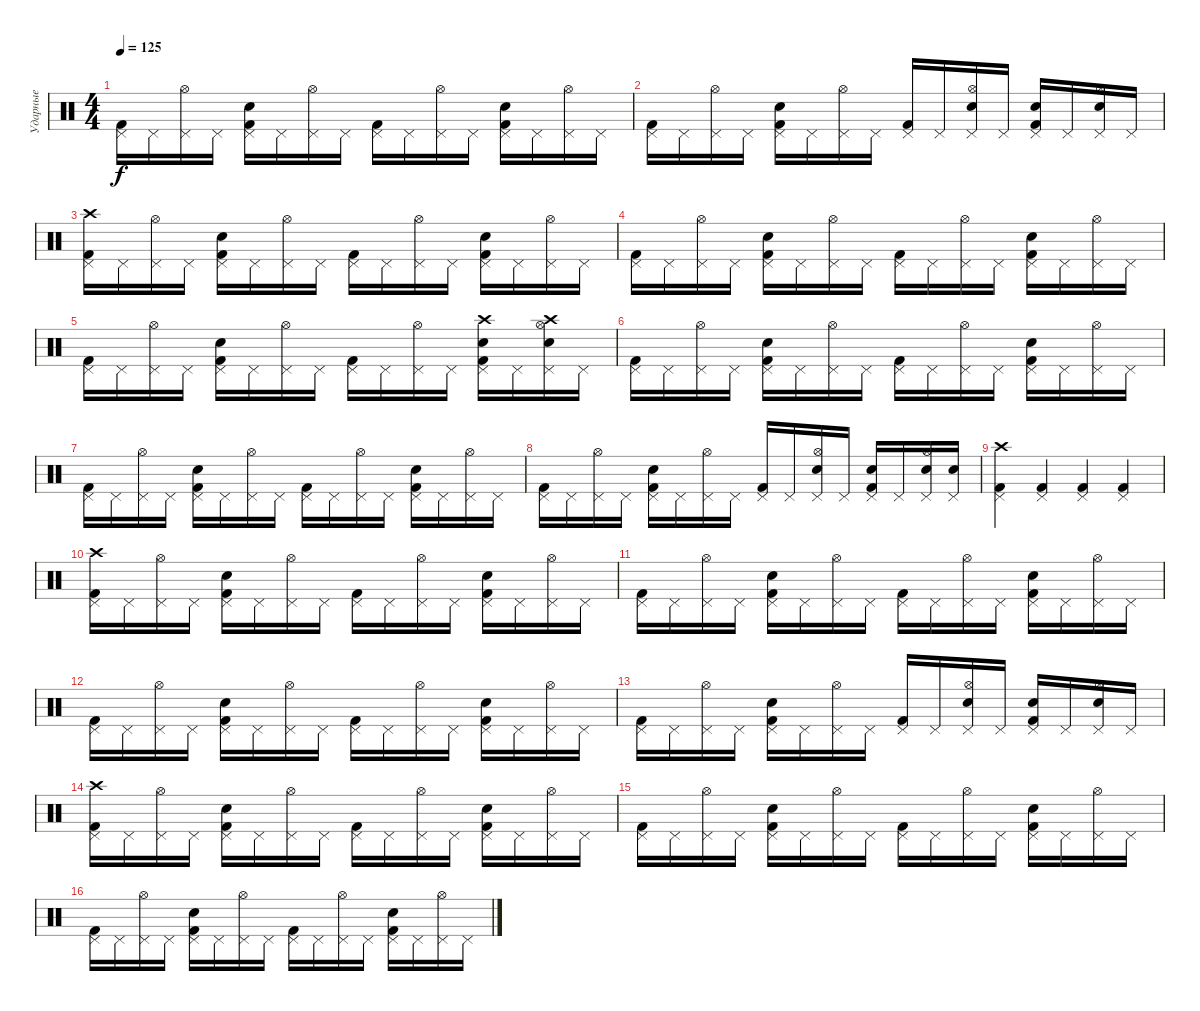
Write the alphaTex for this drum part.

\track ("Ударные" "Ударные") {instrument percussion}
\staff {score}
\articulation defaults
\ts (4 4)
\tempo 125
\clef neutral
\ks c
("Kick (hit) 2" "Pedal Hi-Hat (hit)").16{dy f} "Pedal Hi-Hat (hit)".16 ("Pedal Hi-Hat (hit)" "Hi-Hat (open)").16 "Pedal Hi-Hat (hit)".16 ("Kick (hit) 2" "Pedal Hi-Hat (hit)" "Snare (hit) 2").16 "Pedal Hi-Hat (hit)".16 ("Pedal Hi-Hat (hit)" "Hi-Hat (open)").16 "Pedal Hi-Hat (hit)".16 ("Kick (hit) 2" "Pedal Hi-Hat (hit)").16 "Pedal Hi-Hat (hit)".16 ("Pedal Hi-Hat (hit)" "Hi-Hat (open)").16 "Pedal Hi-Hat (hit)".16 ("Kick (hit) 2" "Pedal Hi-Hat (hit)" "Snare (hit) 2").16 "Pedal Hi-Hat (hit)".16 ("Pedal Hi-Hat (hit)" "Hi-Hat (open)").16 "Pedal Hi-Hat (hit)".16 |
("Kick (hit) 2" "Pedal Hi-Hat (hit)").16 "Pedal Hi-Hat (hit)".16 ("Pedal Hi-Hat (hit)" "Hi-Hat (open)").16 "Pedal Hi-Hat (hit)".16 ("Kick (hit) 2" "Pedal Hi-Hat (hit)" "Snare (hit) 2").16 "Pedal Hi-Hat (hit)".16 ("Pedal Hi-Hat (hit)" "Hi-Hat (open)").16 "Pedal Hi-Hat (hit)".16 ("Kick (hit) 2" "Pedal Hi-Hat (hit)").16 "Pedal Hi-Hat (hit)".16 ("Pedal Hi-Hat (hit)" "Snare (hit) 2" "Hi-Hat (open)").16 "Pedal Hi-Hat (hit)".16 ("Kick (hit) 2" "Pedal Hi-Hat (hit)" "Snare (hit) 2").16 "Pedal Hi-Hat (hit)".16 ("Pedal Hi-Hat (hit)" "Snare (hit) 2" "Hi-Hat (open)").16 "Pedal Hi-Hat (hit)".16 |
("Kick (hit) 2" "Pedal Hi-Hat (hit)" "Crash high (hit)").16 "Pedal Hi-Hat (hit)".16 ("Pedal Hi-Hat (hit)" "Hi-Hat (open)").16 "Pedal Hi-Hat (hit)".16 ("Kick (hit) 2" "Pedal Hi-Hat (hit)" "Snare (hit) 2").16 "Pedal Hi-Hat (hit)".16 ("Pedal Hi-Hat (hit)" "Hi-Hat (open)").16 "Pedal Hi-Hat (hit)".16 ("Kick (hit) 2" "Pedal Hi-Hat (hit)").16 "Pedal Hi-Hat (hit)".16 ("Pedal Hi-Hat (hit)" "Hi-Hat (open)").16 "Pedal Hi-Hat (hit)".16 ("Kick (hit) 2" "Pedal Hi-Hat (hit)" "Snare (hit) 2").16 "Pedal Hi-Hat (hit)".16 ("Pedal Hi-Hat (hit)" "Hi-Hat (open)").16 "Pedal Hi-Hat (hit)".16 |
("Kick (hit) 2" "Pedal Hi-Hat (hit)").16 "Pedal Hi-Hat (hit)".16 ("Pedal Hi-Hat (hit)" "Hi-Hat (open)").16 "Pedal Hi-Hat (hit)".16 ("Kick (hit) 2" "Pedal Hi-Hat (hit)" "Snare (hit) 2").16 "Pedal Hi-Hat (hit)".16 ("Pedal Hi-Hat (hit)" "Hi-Hat (open)").16 "Pedal Hi-Hat (hit)".16 ("Kick (hit) 2" "Pedal Hi-Hat (hit)").16 "Pedal Hi-Hat (hit)".16 ("Pedal Hi-Hat (hit)" "Hi-Hat (open)").16 "Pedal Hi-Hat (hit)".16 ("Kick (hit) 2" "Pedal Hi-Hat (hit)" "Snare (hit) 2").16 "Pedal Hi-Hat (hit)".16 ("Pedal Hi-Hat (hit)" "Hi-Hat (open)").16 "Pedal Hi-Hat (hit)".16 |
("Kick (hit) 2" "Pedal Hi-Hat (hit)").16 "Pedal Hi-Hat (hit)".16 ("Pedal Hi-Hat (hit)" "Hi-Hat (open)").16 "Pedal Hi-Hat (hit)".16 ("Kick (hit) 2" "Pedal Hi-Hat (hit)" "Snare (hit) 2").16 "Pedal Hi-Hat (hit)".16 ("Pedal Hi-Hat (hit)" "Hi-Hat (open)").16 "Pedal Hi-Hat (hit)".16 ("Kick (hit) 2" "Pedal Hi-Hat (hit)").16 "Pedal Hi-Hat (hit)".16 ("Pedal Hi-Hat (hit)" "Hi-Hat (open)").16 "Pedal Hi-Hat (hit)".16 ("Kick (hit) 2" "Pedal Hi-Hat (hit)" "Snare (hit) 2" "Crash high (hit)").16 "Pedal Hi-Hat (hit)".16 ("Pedal Hi-Hat (hit)" "Snare (hit) 2" "Hi-Hat (open)" "Crash high (hit)").16 "Pedal Hi-Hat (hit)".16 |
("Kick (hit) 2" "Pedal Hi-Hat (hit)").16 "Pedal Hi-Hat (hit)".16 ("Pedal Hi-Hat (hit)" "Hi-Hat (open)").16 "Pedal Hi-Hat (hit)".16 ("Kick (hit) 2" "Pedal Hi-Hat (hit)" "Snare (hit) 2").16 "Pedal Hi-Hat (hit)".16 ("Pedal Hi-Hat (hit)" "Hi-Hat (open)").16 "Pedal Hi-Hat (hit)".16 ("Kick (hit) 2" "Pedal Hi-Hat (hit)").16 "Pedal Hi-Hat (hit)".16 ("Pedal Hi-Hat (hit)" "Hi-Hat (open)").16 "Pedal Hi-Hat (hit)".16 ("Kick (hit) 2" "Pedal Hi-Hat (hit)" "Snare (hit) 2").16 "Pedal Hi-Hat (hit)".16 ("Pedal Hi-Hat (hit)" "Hi-Hat (open)").16 "Pedal Hi-Hat (hit)".16 |
("Kick (hit) 2" "Pedal Hi-Hat (hit)").16 "Pedal Hi-Hat (hit)".16 ("Pedal Hi-Hat (hit)" "Hi-Hat (open)").16 "Pedal Hi-Hat (hit)".16 ("Kick (hit) 2" "Pedal Hi-Hat (hit)" "Snare (hit) 2").16 "Pedal Hi-Hat (hit)".16 ("Pedal Hi-Hat (hit)" "Hi-Hat (open)").16 "Pedal Hi-Hat (hit)".16 ("Kick (hit) 2" "Pedal Hi-Hat (hit)").16 "Pedal Hi-Hat (hit)".16 ("Pedal Hi-Hat (hit)" "Hi-Hat (open)").16 "Pedal Hi-Hat (hit)".16 ("Kick (hit) 2" "Pedal Hi-Hat (hit)" "Snare (hit) 2").16 "Pedal Hi-Hat (hit)".16 ("Pedal Hi-Hat (hit)" "Hi-Hat (open)").16 "Pedal Hi-Hat (hit)".16 |
("Kick (hit) 2" "Pedal Hi-Hat (hit)").16 "Pedal Hi-Hat (hit)".16 ("Pedal Hi-Hat (hit)" "Hi-Hat (open)").16 "Pedal Hi-Hat (hit)".16 ("Kick (hit) 2" "Pedal Hi-Hat (hit)" "Snare (hit) 2").16 "Pedal Hi-Hat (hit)".16 ("Pedal Hi-Hat (hit)" "Hi-Hat (open)").16 "Pedal Hi-Hat (hit)".16 ("Kick (hit) 2" "Pedal Hi-Hat (hit)").16 "Pedal Hi-Hat (hit)".16 ("Pedal Hi-Hat (hit)" "Snare (hit) 2" "Hi-Hat (open)").16 "Pedal Hi-Hat (hit)".16 ("Kick (hit) 2" "Pedal Hi-Hat (hit)" "Snare (hit) 2").16 "Pedal Hi-Hat (hit)".16 ("Pedal Hi-Hat (hit)" "Snare (hit) 2" "Hi-Hat (open)").16 ("Pedal Hi-Hat (hit)" "Snare (hit) 2").16 |
("Kick (hit) 2" "Pedal Hi-Hat (hit)" "Crash high (hit)").4 ("Kick (hit) 2" "Pedal Hi-Hat (hit)").4 ("Kick (hit) 2" "Pedal Hi-Hat (hit)").4 ("Kick (hit) 2" "Pedal Hi-Hat (hit)").4 |
("Kick (hit) 2" "Pedal Hi-Hat (hit)" "Crash high (hit)").16 "Pedal Hi-Hat (hit)".16 ("Pedal Hi-Hat (hit)" "Hi-Hat (open)").16 "Pedal Hi-Hat (hit)".16 ("Kick (hit) 2" "Pedal Hi-Hat (hit)" "Snare (hit) 2").16 "Pedal Hi-Hat (hit)".16 ("Pedal Hi-Hat (hit)" "Hi-Hat (open)").16 "Pedal Hi-Hat (hit)".16 ("Kick (hit) 2" "Pedal Hi-Hat (hit)").16 "Pedal Hi-Hat (hit)".16 ("Pedal Hi-Hat (hit)" "Hi-Hat (open)").16 "Pedal Hi-Hat (hit)".16 ("Kick (hit) 2" "Pedal Hi-Hat (hit)" "Snare (hit) 2").16 "Pedal Hi-Hat (hit)".16 ("Pedal Hi-Hat (hit)" "Hi-Hat (open)").16 "Pedal Hi-Hat (hit)".16 |
("Kick (hit) 2" "Pedal Hi-Hat (hit)").16 "Pedal Hi-Hat (hit)".16 ("Pedal Hi-Hat (hit)" "Hi-Hat (open)").16 "Pedal Hi-Hat (hit)".16 ("Kick (hit) 2" "Pedal Hi-Hat (hit)" "Snare (hit) 2").16 "Pedal Hi-Hat (hit)".16 ("Pedal Hi-Hat (hit)" "Hi-Hat (open)").16 "Pedal Hi-Hat (hit)".16 ("Kick (hit) 2" "Pedal Hi-Hat (hit)").16 "Pedal Hi-Hat (hit)".16 ("Pedal Hi-Hat (hit)" "Hi-Hat (open)").16 "Pedal Hi-Hat (hit)".16 ("Kick (hit) 2" "Pedal Hi-Hat (hit)" "Snare (hit) 2").16 "Pedal Hi-Hat (hit)".16 ("Pedal Hi-Hat (hit)" "Hi-Hat (open)").16 "Pedal Hi-Hat (hit)".16 |
("Kick (hit) 2" "Pedal Hi-Hat (hit)").16 "Pedal Hi-Hat (hit)".16 ("Pedal Hi-Hat (hit)" "Hi-Hat (open)").16 "Pedal Hi-Hat (hit)".16 ("Kick (hit) 2" "Pedal Hi-Hat (hit)" "Snare (hit) 2").16 "Pedal Hi-Hat (hit)".16 ("Pedal Hi-Hat (hit)" "Hi-Hat (open)").16 "Pedal Hi-Hat (hit)".16 ("Kick (hit) 2" "Pedal Hi-Hat (hit)").16 "Pedal Hi-Hat (hit)".16 ("Pedal Hi-Hat (hit)" "Hi-Hat (open)").16 "Pedal Hi-Hat (hit)".16 ("Kick (hit) 2" "Pedal Hi-Hat (hit)" "Snare (hit) 2").16 "Pedal Hi-Hat (hit)".16 ("Pedal Hi-Hat (hit)" "Hi-Hat (open)").16 "Pedal Hi-Hat (hit)".16 |
("Kick (hit) 2" "Pedal Hi-Hat (hit)").16 "Pedal Hi-Hat (hit)".16 ("Pedal Hi-Hat (hit)" "Hi-Hat (open)").16 "Pedal Hi-Hat (hit)".16 ("Kick (hit) 2" "Pedal Hi-Hat (hit)" "Snare (hit) 2").16 "Pedal Hi-Hat (hit)".16 ("Pedal Hi-Hat (hit)" "Hi-Hat (open)").16 "Pedal Hi-Hat (hit)".16 ("Kick (hit) 2" "Pedal Hi-Hat (hit)").16 "Pedal Hi-Hat (hit)".16 ("Pedal Hi-Hat (hit)" "Snare (hit) 2" "Hi-Hat (open)").16 "Pedal Hi-Hat (hit)".16 ("Kick (hit) 2" "Pedal Hi-Hat (hit)" "Snare (hit) 2").16 "Pedal Hi-Hat (hit)".16 ("Pedal Hi-Hat (hit)" "Snare (hit) 2" "Hi-Hat (open)").16 "Pedal Hi-Hat (hit)".16 |
("Kick (hit) 2" "Pedal Hi-Hat (hit)" "Crash high (hit)").16 "Pedal Hi-Hat (hit)".16 ("Pedal Hi-Hat (hit)" "Hi-Hat (open)").16 "Pedal Hi-Hat (hit)".16 ("Kick (hit) 2" "Pedal Hi-Hat (hit)" "Snare (hit) 2").16 "Pedal Hi-Hat (hit)".16 ("Pedal Hi-Hat (hit)" "Hi-Hat (open)").16 "Pedal Hi-Hat (hit)".16 ("Kick (hit) 2" "Pedal Hi-Hat (hit)").16 "Pedal Hi-Hat (hit)".16 ("Pedal Hi-Hat (hit)" "Hi-Hat (open)").16 "Pedal Hi-Hat (hit)".16 ("Kick (hit) 2" "Pedal Hi-Hat (hit)" "Snare (hit) 2").16 "Pedal Hi-Hat (hit)".16 ("Pedal Hi-Hat (hit)" "Hi-Hat (open)").16 "Pedal Hi-Hat (hit)".16 |
("Kick (hit) 2" "Pedal Hi-Hat (hit)").16 "Pedal Hi-Hat (hit)".16 ("Pedal Hi-Hat (hit)" "Hi-Hat (open)").16 "Pedal Hi-Hat (hit)".16 ("Kick (hit) 2" "Pedal Hi-Hat (hit)" "Snare (hit) 2").16 "Pedal Hi-Hat (hit)".16 ("Pedal Hi-Hat (hit)" "Hi-Hat (open)").16 "Pedal Hi-Hat (hit)".16 ("Kick (hit) 2" "Pedal Hi-Hat (hit)").16 "Pedal Hi-Hat (hit)".16 ("Pedal Hi-Hat (hit)" "Hi-Hat (open)").16 "Pedal Hi-Hat (hit)".16 ("Kick (hit) 2" "Pedal Hi-Hat (hit)" "Snare (hit) 2").16 "Pedal Hi-Hat (hit)".16 ("Pedal Hi-Hat (hit)" "Hi-Hat (open)").16 "Pedal Hi-Hat (hit)".16 |
("Kick (hit) 2" "Pedal Hi-Hat (hit)").16 "Pedal Hi-Hat (hit)".16 ("Pedal Hi-Hat (hit)" "Hi-Hat (open)").16 "Pedal Hi-Hat (hit)".16 ("Kick (hit) 2" "Pedal Hi-Hat (hit)" "Snare (hit) 2").16 "Pedal Hi-Hat (hit)".16 ("Pedal Hi-Hat (hit)" "Hi-Hat (open)").16 "Pedal Hi-Hat (hit)".16 ("Kick (hit) 2" "Pedal Hi-Hat (hit)").16 "Pedal Hi-Hat (hit)".16 ("Pedal Hi-Hat (hit)" "Hi-Hat (open)").16 "Pedal Hi-Hat (hit)".16 ("Kick (hit) 2" "Pedal Hi-Hat (hit)" "Snare (hit) 2").16 "Pedal Hi-Hat (hit)".16 ("Pedal Hi-Hat (hit)" "Hi-Hat (open)").16 "Pedal Hi-Hat (hit)".16
